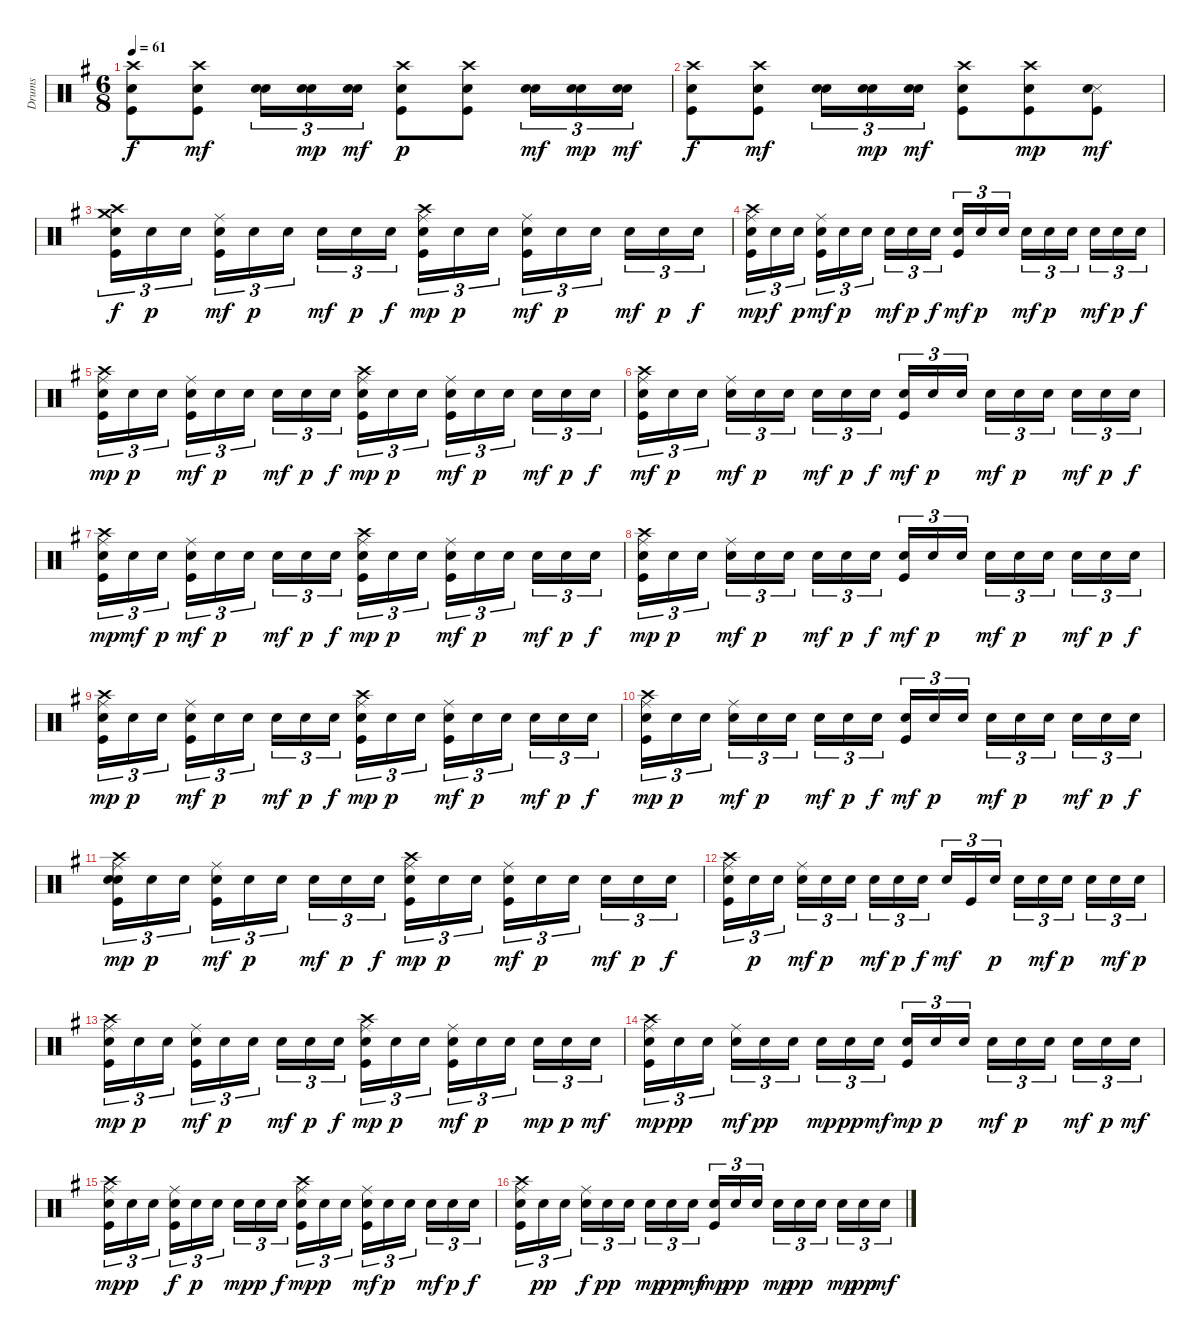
\track ("Drums" "Drums") {instrument percussion}
\staff {score}
\articulation defaults
\ts (6 8)
\tempo 61
\clef neutral
\ks g
("Kick (hit)" "Electric Snare (hit)" "Crash high (hit)").8{dy f} ("Kick (hit)" "Electric Snare (hit)" "Crash high (hit)").8{dy mf} ("Snare (hit) 2" "Electric Snare (hit)").16{tu (3 2)} ("Snare (hit) 2" "Electric Snare (hit)").16{tu (3 2) dy mp} ("Snare (hit) 2" "Electric Snare (hit)").16{tu (3 2) dy mf} ("Kick (hit)" "Electric Snare (hit)" "Crash high (hit)").8{dy p} ("Kick (hit)" "Electric Snare (hit)" "Crash high (hit)").8 ("Snare (hit) 2" "Electric Snare (hit)").16{tu (3 2) dy mf} ("Snare (hit) 2" "Electric Snare (hit)").16{tu (3 2) dy mp} ("Snare (hit) 2" "Electric Snare (hit)").16{tu (3 2) dy mf} |
("Kick (hit)" "Electric Snare (hit)" "Crash high (hit)").8{dy f} ("Kick (hit)" "Electric Snare (hit)" "Crash high (hit)").8{dy mf} ("Snare (hit) 2" "Electric Snare (hit)").16{tu (3 2)} ("Snare (hit) 2" "Electric Snare (hit)").16{tu (3 2) dy mp} ("Snare (hit) 2" "Electric Snare (hit)").16{tu (3 2) dy mf} ("Crash high (hit)" "Kick (hit)" "Electric Snare (hit)").8 ("Kick (hit)" "Electric Snare (hit)" "Crash high (hit)").8{dy mp} ("Kick (hit)" "Snare (side stick) 3" "Electric Snare (hit)").8{dy mf} |
("Kick (hit)" "Electric Snare (hit)" "Crash medium (hit)" "Crash high (hit)").16{tu (3 2) dy f} "Electric Snare (hit)".16{tu (3 2) dy p} "Electric Snare (hit)".16{tu (3 2) beam splitsecondary} ("Kick (hit)" "Electric Snare (hit)" "Ride (middle)").16{tu (3 2) dy mf} "Electric Snare (hit)".16{tu (3 2) dy p} "Electric Snare (hit)".16{tu (3 2) beam splitsecondary} "Electric Snare (hit)".16{tu (3 2) dy mf} "Electric Snare (hit)".16{tu (3 2) dy p} "Electric Snare (hit)".16{tu (3 2) dy f} ("Kick (hit)" "Electric Snare (hit)" "Crash high (hit)" "Ride (middle)").16{tu (3 2) dy mp} "Electric Snare (hit)".16{tu (3 2) dy p} "Electric Snare (hit)".16{tu (3 2) beam splitsecondary} ("Kick (hit)" "Electric Snare (hit)" "Ride (middle)").16{tu (3 2) dy mf} "Electric Snare (hit)".16{tu (3 2) dy p} "Electric Snare (hit)".16{tu (3 2) beam splitsecondary} "Electric Snare (hit)".16{tu (3 2) dy mf} "Electric Snare (hit)".16{tu (3 2) dy p} "Electric Snare (hit)".16{tu (3 2) dy f} |
("Kick (hit)" "Electric Snare (hit)" "Ride (middle)" "Crash high (hit)").16{tu (3 2) dy mp} "Electric Snare (hit)".16{tu (3 2) dy f} "Electric Snare (hit)".16{tu (3 2) dy p beam splitsecondary} ("Kick (hit)" "Electric Snare (hit)" "Ride (middle)").16{tu (3 2) dy mf} "Electric Snare (hit)".16{tu (3 2) dy p} "Electric Snare (hit)".16{tu (3 2) beam splitsecondary} "Electric Snare (hit)".16{tu (3 2) dy mf} "Electric Snare (hit)".16{tu (3 2) dy p} "Electric Snare (hit)".16{tu (3 2) dy f} ("Kick (hit)" "Electric Snare (hit)").16{tu (3 2) dy mf} "Electric Snare (hit)".16{tu (3 2) dy p} "Electric Snare (hit)".16{tu (3 2) beam splitsecondary} "Electric Snare (hit)".16{tu (3 2) dy mf} "Electric Snare (hit)".16{tu (3 2) dy p} "Electric Snare (hit)".16{tu (3 2) beam splitsecondary} "Electric Snare (hit)".16{tu (3 2) dy mf} "Electric Snare (hit)".16{tu (3 2) dy p} "Electric Snare (hit)".16{tu (3 2) dy f} |
("Kick (hit)" "Electric Snare (hit)" "Ride (middle)" "Crash high (hit)").16{tu (3 2) dy mp} "Electric Snare (hit)".16{tu (3 2) dy p} "Electric Snare (hit)".16{tu (3 2) beam splitsecondary} ("Electric Snare (hit)" "Ride (middle)" "Kick (hit)").16{tu (3 2) dy mf} "Electric Snare (hit)".16{tu (3 2) dy p} "Electric Snare (hit)".16{tu (3 2) beam splitsecondary} "Electric Snare (hit)".16{tu (3 2) dy mf} "Electric Snare (hit)".16{tu (3 2) dy p} "Electric Snare (hit)".16{tu (3 2) dy f} ("Electric Snare (hit)" "Crash high (hit)" "Ride (middle)" "Kick (hit)").16{tu (3 2) dy mp} "Electric Snare (hit)".16{tu (3 2) dy p} "Electric Snare (hit)".16{tu (3 2) beam splitsecondary} ("Kick (hit)" "Electric Snare (hit)" "Ride (middle)").16{tu (3 2) dy mf} "Electric Snare (hit)".16{tu (3 2) dy p} "Electric Snare (hit)".16{tu (3 2) beam splitsecondary} "Electric Snare (hit)".16{tu (3 2) dy mf} "Electric Snare (hit)".16{tu (3 2) dy p} "Electric Snare (hit)".16{tu (3 2) dy f} |
("Electric Snare (hit)" "Crash high (hit)" "Ride (middle)" "Kick (hit)").16{tu (3 2) dy mf} "Electric Snare (hit)".16{tu (3 2) dy p} "Electric Snare (hit)".16{tu (3 2) beam splitsecondary} ("Electric Snare (hit)" "Ride (middle)").16{tu (3 2) dy mf} "Electric Snare (hit)".16{tu (3 2) dy p} "Electric Snare (hit)".16{tu (3 2) beam splitsecondary} "Electric Snare (hit)".16{tu (3 2) dy mf} "Electric Snare (hit)".16{tu (3 2) dy p} "Electric Snare (hit)".16{tu (3 2) dy f} ("Electric Snare (hit)" "Kick (hit)").16{tu (3 2) dy mf} "Electric Snare (hit)".16{tu (3 2) dy p} "Electric Snare (hit)".16{tu (3 2) beam splitsecondary} "Electric Snare (hit)".16{tu (3 2) dy mf} "Electric Snare (hit)".16{tu (3 2) dy p} "Electric Snare (hit)".16{tu (3 2) beam splitsecondary} "Electric Snare (hit)".16{tu (3 2) dy mf} "Electric Snare (hit)".16{tu (3 2) dy p} "Electric Snare (hit)".16{tu (3 2) dy f} |
("Kick (hit)" "Electric Snare (hit)" "Crash high (hit)" "Ride (middle)").16{tu (3 2) dy mp} "Electric Snare (hit)".16{tu (3 2) dy mf} "Electric Snare (hit)".16{tu (3 2) dy p beam splitsecondary} ("Kick (hit)" "Electric Snare (hit)" "Ride (middle)").16{tu (3 2) dy mf} "Electric Snare (hit)".16{tu (3 2) dy p} "Electric Snare (hit)".16{tu (3 2) beam splitsecondary} "Electric Snare (hit)".16{tu (3 2) dy mf} "Electric Snare (hit)".16{tu (3 2) dy p} "Electric Snare (hit)".16{tu (3 2) dy f} ("Kick (hit)" "Electric Snare (hit)" "Crash high (hit)" "Ride (middle)").16{tu (3 2) dy mp} "Electric Snare (hit)".16{tu (3 2) dy p} "Electric Snare (hit)".16{tu (3 2) beam splitsecondary} ("Electric Snare (hit)" "Ride (middle)" "Kick (hit)").16{tu (3 2) dy mf} "Electric Snare (hit)".16{tu (3 2) dy p} "Electric Snare (hit)".16{tu (3 2) beam splitsecondary} "Electric Snare (hit)".16{tu (3 2) dy mf} "Electric Snare (hit)".16{tu (3 2) dy p} "Electric Snare (hit)".16{tu (3 2) dy f} |
("Kick (hit)" "Electric Snare (hit)" "Crash high (hit)" "Ride (middle)").16{tu (3 2) dy mp} "Electric Snare (hit)".16{tu (3 2) dy p} "Electric Snare (hit)".16{tu (3 2) beam splitsecondary} ("Electric Snare (hit)" "Ride (middle)").16{tu (3 2) dy mf} "Electric Snare (hit)".16{tu (3 2) dy p} "Electric Snare (hit)".16{tu (3 2) beam splitsecondary} "Electric Snare (hit)".16{tu (3 2) dy mf} "Electric Snare (hit)".16{tu (3 2) dy p} "Electric Snare (hit)".16{tu (3 2) dy f} ("Kick (hit)" "Electric Snare (hit)").16{tu (3 2) dy mf} "Electric Snare (hit)".16{tu (3 2) dy p} "Electric Snare (hit)".16{tu (3 2) beam splitsecondary} "Electric Snare (hit)".16{tu (3 2) dy mf} "Electric Snare (hit)".16{tu (3 2) dy p} "Electric Snare (hit)".16{tu (3 2) beam splitsecondary} "Electric Snare (hit)".16{tu (3 2) dy mf} "Electric Snare (hit)".16{tu (3 2) dy p} "Electric Snare (hit)".16{tu (3 2) dy f} |
("Kick (hit)" "Electric Snare (hit)" "Crash high (hit)" "Ride (middle)").16{tu (3 2) dy mp} "Electric Snare (hit)".16{tu (3 2) dy p} "Electric Snare (hit)".16{tu (3 2) beam splitsecondary} ("Kick (hit)" "Electric Snare (hit)" "Ride (middle)").16{tu (3 2) dy mf} "Electric Snare (hit)".16{tu (3 2) dy p} "Electric Snare (hit)".16{tu (3 2) beam splitsecondary} "Electric Snare (hit)".16{tu (3 2) dy mf} "Electric Snare (hit)".16{tu (3 2) dy p} "Electric Snare (hit)".16{tu (3 2) dy f} ("Kick (hit)" "Electric Snare (hit)" "Crash high (hit)" "Ride (middle)").16{tu (3 2) dy mp} "Electric Snare (hit)".16{tu (3 2) dy p} "Electric Snare (hit)".16{tu (3 2) beam splitsecondary} ("Kick (hit)" "Electric Snare (hit)" "Ride (middle)").16{tu (3 2) dy mf} "Electric Snare (hit)".16{tu (3 2) dy p} "Electric Snare (hit)".16{tu (3 2) beam splitsecondary} "Electric Snare (hit)".16{tu (3 2) dy mf} "Electric Snare (hit)".16{tu (3 2) dy p} "Electric Snare (hit)".16{tu (3 2) dy f} |
("Kick (hit)" "Electric Snare (hit)" "Crash high (hit)" "Ride (middle)").16{tu (3 2) dy mp} "Electric Snare (hit)".16{tu (3 2) dy p} "Electric Snare (hit)".16{tu (3 2) beam splitsecondary} ("Electric Snare (hit)" "Ride (middle)").16{tu (3 2) dy mf} "Electric Snare (hit)".16{tu (3 2) dy p} "Electric Snare (hit)".16{tu (3 2) beam splitsecondary} "Electric Snare (hit)".16{tu (3 2) dy mf} "Electric Snare (hit)".16{tu (3 2) dy p} "Electric Snare (hit)".16{tu (3 2) dy f} ("Kick (hit)" "Electric Snare (hit)").16{tu (3 2) dy mf} "Electric Snare (hit)".16{tu (3 2) dy p} "Electric Snare (hit)".16{tu (3 2) beam splitsecondary} "Electric Snare (hit)".16{tu (3 2) dy mf} "Electric Snare (hit)".16{tu (3 2) dy p} "Electric Snare (hit)".16{tu (3 2) beam splitsecondary} "Electric Snare (hit)".16{tu (3 2) dy mf} "Electric Snare (hit)".16{tu (3 2) dy p} "Electric Snare (hit)".16{tu (3 2) dy f} |
("Kick (hit)" "Electric Snare (hit)" "Electric Snare (hit)" "Crash high (hit)" "Ride (middle)").16{tu (3 2) dy mp} "Electric Snare (hit)".16{tu (3 2) dy p} "Electric Snare (hit)".16{tu (3 2) beam splitsecondary} ("Electric Snare (hit)" "Ride (middle)" "Kick (hit)").16{tu (3 2) dy mf} "Electric Snare (hit)".16{tu (3 2) dy p} "Electric Snare (hit)".16{tu (3 2) beam splitsecondary} "Electric Snare (hit)".16{tu (3 2) dy mf} "Electric Snare (hit)".16{tu (3 2) dy p} "Electric Snare (hit)".16{tu (3 2) dy f} ("Kick (hit)" "Electric Snare (hit)" "Crash high (hit)" "Ride (middle)").16{tu (3 2) dy mp} "Electric Snare (hit)".16{tu (3 2) dy p} "Electric Snare (hit)".16{tu (3 2) beam splitsecondary} ("Kick (hit)" "Electric Snare (hit)" "Ride (middle)").16{tu (3 2) dy mf} "Electric Snare (hit)".16{tu (3 2) dy p} "Electric Snare (hit)".16{tu (3 2) beam splitsecondary} "Electric Snare (hit)".16{tu (3 2) dy mf} "Electric Snare (hit)".16{tu (3 2) dy p} "Electric Snare (hit)".16{tu (3 2) dy f} |
("Kick (hit)" "Electric Snare (hit)" "Crash high (hit)" "Ride (middle)").16{tu (3 2)} "Electric Snare (hit)".16{tu (3 2) dy p} "Electric Snare (hit)".16{tu (3 2) beam splitsecondary} ("Electric Snare (hit)" "Ride (middle)").16{tu (3 2) dy mf} "Electric Snare (hit)".16{tu (3 2) dy p} "Electric Snare (hit)".16{tu (3 2) beam splitsecondary} "Electric Snare (hit)".16{tu (3 2) dy mf} "Electric Snare (hit)".16{tu (3 2) dy p} "Electric Snare (hit)".16{tu (3 2) dy f} "Electric Snare (hit)".16{tu (3 2) dy mf} "Kick (hit)".16{tu (3 2)} "Electric Snare (hit)".16{tu (3 2) dy p beam splitsecondary} "Electric Snare (hit)".16{tu (3 2)} "Electric Snare (hit)".16{tu (3 2) dy mf} "Electric Snare (hit)".16{tu (3 2) dy p beam splitsecondary} "Electric Snare (hit)".16{tu (3 2)} "Electric Snare (hit)".16{tu (3 2) dy mf} "Electric Snare (hit)".16{tu (3 2) dy p} |
("Kick (hit)" "Electric Snare (hit)" "Crash high (hit)" "Ride (middle)").16{tu (3 2) dy mp} "Electric Snare (hit)".16{tu (3 2) dy p} "Electric Snare (hit)".16{tu (3 2) beam splitsecondary} ("Kick (hit)" "Electric Snare (hit)" "Ride (middle)").16{tu (3 2) dy mf} "Electric Snare (hit)".16{tu (3 2) dy p} "Electric Snare (hit)".16{tu (3 2) beam splitsecondary} "Electric Snare (hit)".16{tu (3 2) dy mf} "Electric Snare (hit)".16{tu (3 2) dy p} "Electric Snare (hit)".16{tu (3 2) dy f} ("Kick (hit)" "Electric Snare (hit)" "Crash high (hit)" "Ride (middle)").16{tu (3 2) dy mp} "Electric Snare (hit)".16{tu (3 2) dy p} "Electric Snare (hit)".16{tu (3 2) beam splitsecondary} ("Kick (hit)" "Electric Snare (hit)" "Ride (middle)").16{tu (3 2) dy mf} "Electric Snare (hit)".16{tu (3 2) dy p} "Electric Snare (hit)".16{tu (3 2) beam splitsecondary} "Electric Snare (hit)".16{tu (3 2) dy mp} "Electric Snare (hit)".16{tu (3 2) dy p} "Electric Snare (hit)".16{tu (3 2) dy mf} |
("Kick (hit)" "Electric Snare (hit)" "Crash high (hit)" "Ride (middle)").16{tu (3 2) dy mp} "Electric Snare (hit)".16{tu (3 2) dy pp} "Electric Snare (hit)".16{tu (3 2) beam splitsecondary} ("Electric Snare (hit)" "Ride (middle)").16{tu (3 2) dy mf} "Electric Snare (hit)".16{tu (3 2) dy pp} "Electric Snare (hit)".16{tu (3 2) beam splitsecondary} "Electric Snare (hit)".16{tu (3 2) dy mp} "Electric Snare (hit)".16{tu (3 2) dy pp} "Electric Snare (hit)".16{tu (3 2) dy mf} ("Electric Snare (hit)" "Kick (hit)").16{tu (3 2) dy mp} "Electric Snare (hit)".16{tu (3 2) dy p} "Electric Snare (hit)".16{tu (3 2) beam splitsecondary} "Electric Snare (hit)".16{tu (3 2) dy mf} "Electric Snare (hit)".16{tu (3 2) dy p} "Electric Snare (hit)".16{tu (3 2) beam splitsecondary} "Electric Snare (hit)".16{tu (3 2) dy mf} "Electric Snare (hit)".16{tu (3 2) dy p} "Electric Snare (hit)".16{tu (3 2) dy mf} |
("Kick (hit)" "Electric Snare (hit)" "Crash high (hit)" "Ride (middle)").16{tu (3 2) dy mp} "Electric Snare (hit)".16{tu (3 2) dy p} "Electric Snare (hit)".16{tu (3 2) beam splitsecondary} ("Kick (hit)" "Electric Snare (hit)" "Ride (middle)").16{tu (3 2) dy f} "Electric Snare (hit)".16{tu (3 2) dy p} "Electric Snare (hit)".16{tu (3 2) beam splitsecondary} "Electric Snare (hit)".16{tu (3 2) dy mp} "Electric Snare (hit)".16{tu (3 2) dy p} "Electric Snare (hit)".16{tu (3 2) dy f} ("Kick (hit)" "Electric Snare (hit)" "Crash high (hit)" "Ride (middle)").16{tu (3 2) dy mp} "Electric Snare (hit)".16{tu (3 2) dy p} "Electric Snare (hit)".16{tu (3 2) beam splitsecondary} ("Electric Snare (hit)" "Ride (middle)" "Kick (hit)").16{tu (3 2) dy mf} "Electric Snare (hit)".16{tu (3 2) dy p} "Electric Snare (hit)".16{tu (3 2) beam splitsecondary} "Electric Snare (hit)".16{tu (3 2) dy mf} "Electric Snare (hit)".16{tu (3 2) dy p} "Electric Snare (hit)".16{tu (3 2) dy f} |
("Crash high (hit)" "Electric Snare (hit)" "Ride (middle)" "Kick (hit)").16{tu (3 2)} "Electric Snare (hit)".16{tu (3 2) dy pp} "Electric Snare (hit)".16{tu (3 2) beam splitsecondary} ("Electric Snare (hit)" "Ride (middle)").16{tu (3 2) dy f} "Electric Snare (hit)".16{tu (3 2) dy pp} "Electric Snare (hit)".16{tu (3 2) beam splitsecondary} "Electric Snare (hit)".16{tu (3 2) dy mp} "Electric Snare (hit)".16{tu (3 2) dy pp} "Electric Snare (hit)".16{tu (3 2) dy mf} ("Kick (hit)" "Electric Snare (hit)").16{tu (3 2) dy mp} "Electric Snare (hit)".16{tu (3 2) dy pp} "Electric Snare (hit)".16{tu (3 2) beam splitsecondary} "Electric Snare (hit)".16{tu (3 2) dy mp} "Electric Snare (hit)".16{tu (3 2) dy pp} "Electric Snare (hit)".16{tu (3 2) beam splitsecondary} "Electric Snare (hit)".16{tu (3 2) dy mp} "Electric Snare (hit)".16{tu (3 2) dy pp} "Electric Snare (hit)".16{tu (3 2) dy mf}
